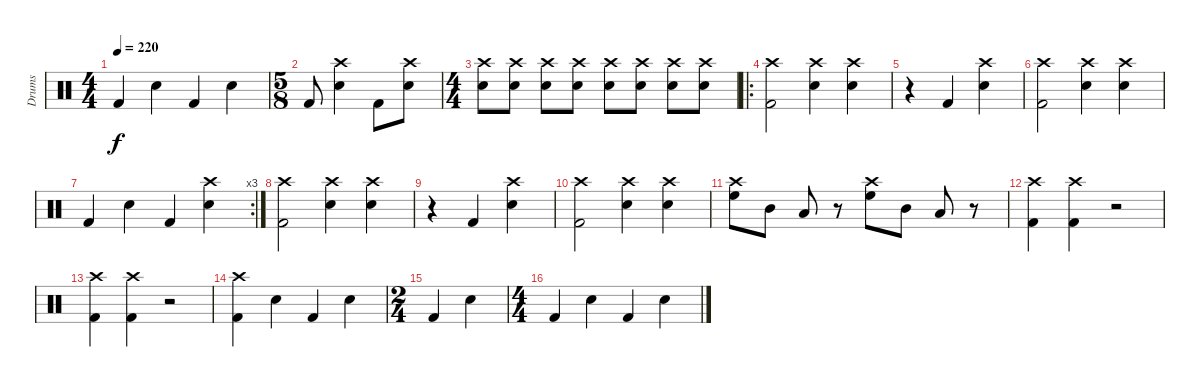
\track ("Drums" "Drums") {instrument percussion}
\staff {score}
\articulation defaults
\ts (4 4)
\tempo 220
\clef neutral
\ks c "Kick (hit) 2".4{dy f} "Electric Snare (hit)".4 "Kick (hit) 2".4 "Electric Snare (hit)".4
|
\ts (5 8)
"Kick (hit) 2".8 ("Electric Snare (hit)" "Crash high (hit)").4 "Kick (hit) 2".8 ("Crash high (hit)" "Electric Snare (hit)").8 |
\ts (4 4)
("Crash high (hit)" "Electric Snare (hit)").8 ("Electric Snare (hit)" "Crash high (hit)").8 ("Crash high (hit)" "Electric Snare (hit)").8 ("Crash high (hit)" "Electric Snare (hit)").8 ("Crash high (hit)" "Electric Snare (hit)").8 ("Crash high (hit)" "Electric Snare (hit)").8 ("Crash high (hit)" "Electric Snare (hit)").8 ("Electric Snare (hit)" "Crash high (hit)").8 |
\ro
("Crash high (hit)" "Kick (hit) 2").2 ("Crash high (hit)" "Electric Snare (hit)").4 ("Crash high (hit)" "Electric Snare (hit)").4 |
r.4 "Kick (hit) 2".4 ("Crash high (hit)" "Electric Snare (hit)").4 |
("Crash high (hit)" "Kick (hit) 2").2 ("Crash high (hit)" "Electric Snare (hit)").4 ("Crash high (hit)" "Electric Snare (hit)").4 |
\rc 3 "Kick (hit) 2".4 "Electric Snare (hit)".4 "Kick (hit) 2".4
("Crash high (hit)" "Electric Snare (hit)").4 |
("Crash high (hit)" "Kick (hit) 2").2 ("Crash high (hit)" "Electric Snare (hit)").4 ("Crash high (hit)" "Electric Snare (hit)").4 |
r.4 "Kick (hit) 2".4 ("Crash high (hit)" "Electric Snare (hit)").4 |
("Crash high (hit)" "Kick (hit) 2").2 ("Crash high (hit)" "Electric Snare (hit)").4 ("Crash high (hit)" "Electric Snare (hit)").4 |
("Crash high (hit)" "High Floor Tom (hit)").8 "Mid Tom (hit)".8 "Low Tom (hit)".8 r.8 ("Crash high (hit)" "High Floor Tom (hit)").8 "Mid Tom (hit)".8 "Low Tom (hit)".8 r.8 |
("Kick (hit) 2" "Crash high (hit)").4 ("Crash high (hit)" "Kick (hit) 2").4 r.2 |
("Kick (hit) 2" "Crash high (hit)").4 ("Crash high (hit)" "Kick (hit) 2").4 r.2 |
("Crash high (hit)" "Kick (hit) 2").4 "Electric Snare (hit)".4 "Kick (hit) 2".4 "Electric Snare (hit)".4 |
\ts (2 4)
"Kick (hit) 2".4 "Electric Snare (hit)".4 |
\ts (4 4)
"Kick (hit) 2".4 "Electric Snare (hit)".4 "Kick (hit) 2".4 "Electric Snare (hit)".4
